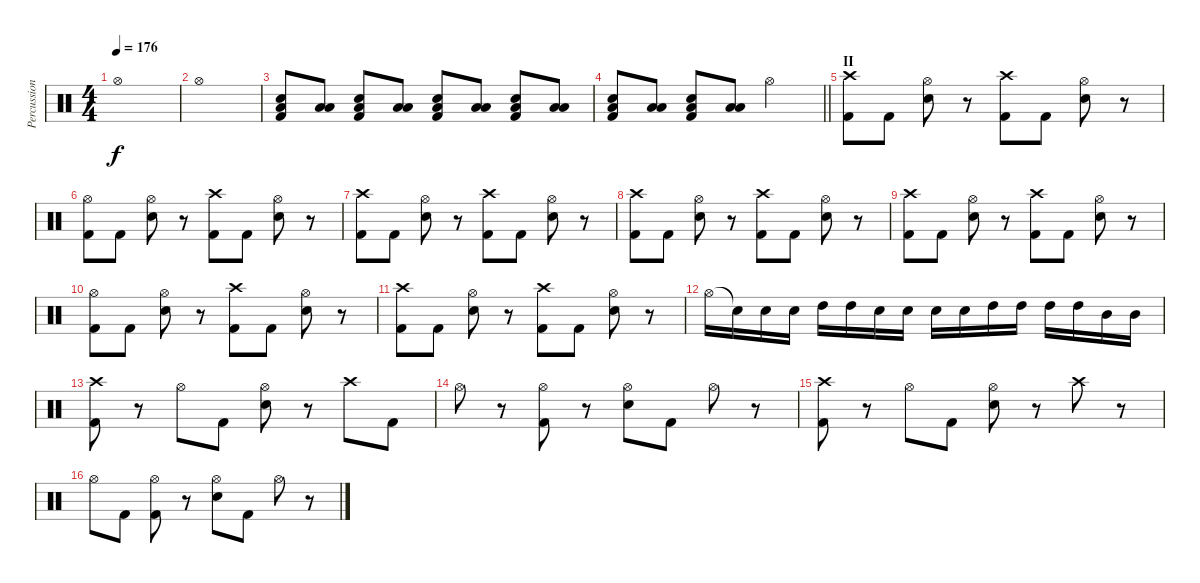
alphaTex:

\track ("Percussion" "Percussion") {instrument percussion}
\staff {score}
\articulation defaults
\ts (4 4)
\tempo 176
\clef neutral
\ks c "Hi-Hat (open)".1{dy f}
|
"Hi-Hat (open)".1 |
("Electric Snare (hit)" "Low Floor Tom (hit)" "Kick (hit) 2").8 ("Low Tom (hit)" "Low Floor Tom (hit)").8 ("Electric Snare (hit)" "Low Floor Tom (hit)" "Kick (hit) 2").8 ("Low Tom (hit)" "Low Floor Tom (hit)").8 ("Electric Snare (hit)" "Low Floor Tom (hit)" "Kick (hit) 2").8 ("Low Tom (hit)" "Low Floor Tom (hit)").8 ("Electric Snare (hit)" "Low Floor Tom (hit)" "Kick (hit) 2").8 ("Low Tom (hit)" "Low Floor Tom (hit)").8 |
\barLineRight lightlight
("Electric Snare (hit)" "Low Floor Tom (hit)" "Kick (hit) 2").8 ("Low Tom (hit)" "Low Floor Tom (hit)").8 ("Electric Snare (hit)" "Low Floor Tom (hit)" "Kick (hit) 2").8 ("Low Tom (hit)" "Low Floor Tom (hit)").8 "Hi-Hat (open)".2 |
\section ("" "II")
("Crash high (hit)" "Kick (hit) 2").8 "Kick (hit) 2".8 ("Hi-Hat (open)" "Electric Snare (hit)").8 r.8 ("Crash high (hit)" "Kick (hit) 2").8 "Kick (hit) 2".8 ("Hi-Hat (open)" "Electric Snare (hit)").8 r.8 |
("Hi-Hat (open)" "Kick (hit) 2").8 "Kick (hit) 2".8 ("Hi-Hat (open)" "Electric Snare (hit)").8 r.8 ("Crash high (hit)" "Kick (hit) 2").8 "Kick (hit) 2".8 ("Hi-Hat (open)" "Electric Snare (hit)").8 r.8 |
("Crash high (hit)" "Kick (hit) 2").8 "Kick (hit) 2".8 ("Hi-Hat (open)" "Electric Snare (hit)").8 r.8 ("Crash high (hit)" "Kick (hit) 2").8 "Kick (hit) 2".8 ("Hi-Hat (open)" "Electric Snare (hit)").8 r.8 |
("Crash high (hit)" "Kick (hit) 2").8 "Kick (hit) 2".8 ("Hi-Hat (open)" "Electric Snare (hit)").8 r.8 ("Crash high (hit)" "Kick (hit) 2").8 "Kick (hit) 2".8 ("Hi-Hat (open)" "Electric Snare (hit)").8 r.8 |
("Crash high (hit)" "Kick (hit) 2").8 "Kick (hit) 2".8 ("Hi-Hat (open)" "Electric Snare (hit)").8 r.8 ("Crash high (hit)" "Kick (hit) 2").8 "Kick (hit) 2".8 ("Hi-Hat (open)" "Electric Snare (hit)").8 r.8 |
("Hi-Hat (open)" "Kick (hit) 2").8 "Kick (hit) 2".8 ("Hi-Hat (open)" "Electric Snare (hit)").8 r.8 ("Crash high (hit)" "Kick (hit) 2").8 "Kick (hit) 2".8 ("Hi-Hat (open)" "Electric Snare (hit)").8 r.8 |
("Crash high (hit)" "Kick (hit) 2").8 "Kick (hit) 2".8 ("Hi-Hat (open)" "Electric Snare (hit)").8 r.8 ("Crash high (hit)" "Kick (hit) 2").8 "Kick (hit) 2".8 ("Hi-Hat (open)" "Electric Snare (hit)").8 r.8 |
"Hi-Hat (open)".16 "Snare (hit)"{t}.16 "Electric Snare (hit)".16 "Electric Snare (hit)".16 "High Tom (hit)".16 "High Tom (hit)".16 "Electric Snare (hit)".16 "Electric Snare (hit)".16 "Electric Snare (hit)".16 "Electric Snare (hit)".16 "High Tom (hit)".16 "High Tom (hit)".16 "High Tom (hit)".16 "High Tom (hit)".16 "Mid Tom (hit)".16 "Mid Tom (hit)".16 |
("Crash high (hit)" "Kick (hit) 2").8 r.8 "Hi-Hat (open)".8 "Kick (hit) 2".8 ("Hi-Hat (open)" "Electric Snare (hit)").8 r.8 "Crash high (hit)".8 "Kick (hit) 2".8 |
"Hi-Hat (open)".8 r.8 ("Hi-Hat (open)" "Kick (hit) 2").8 r.8 ("Hi-Hat (open)" "Electric Snare (hit)").8 "Kick (hit) 2".8 "Hi-Hat (open)".8 r.8 |
("Crash high (hit)" "Kick (hit) 2").8 r.8 "Hi-Hat (open)".8 "Kick (hit) 2".8 ("Hi-Hat (open)" "Electric Snare (hit)").8 r.8 "Crash high (hit)".8 r.8 |
"Hi-Hat (open)".8 "Kick (hit) 2".8 ("Hi-Hat (open)" "Kick (hit) 2").8 r.8 ("Hi-Hat (open)" "Electric Snare (hit)").8 "Kick (hit) 2".8 "Hi-Hat (open)".8 r.8
